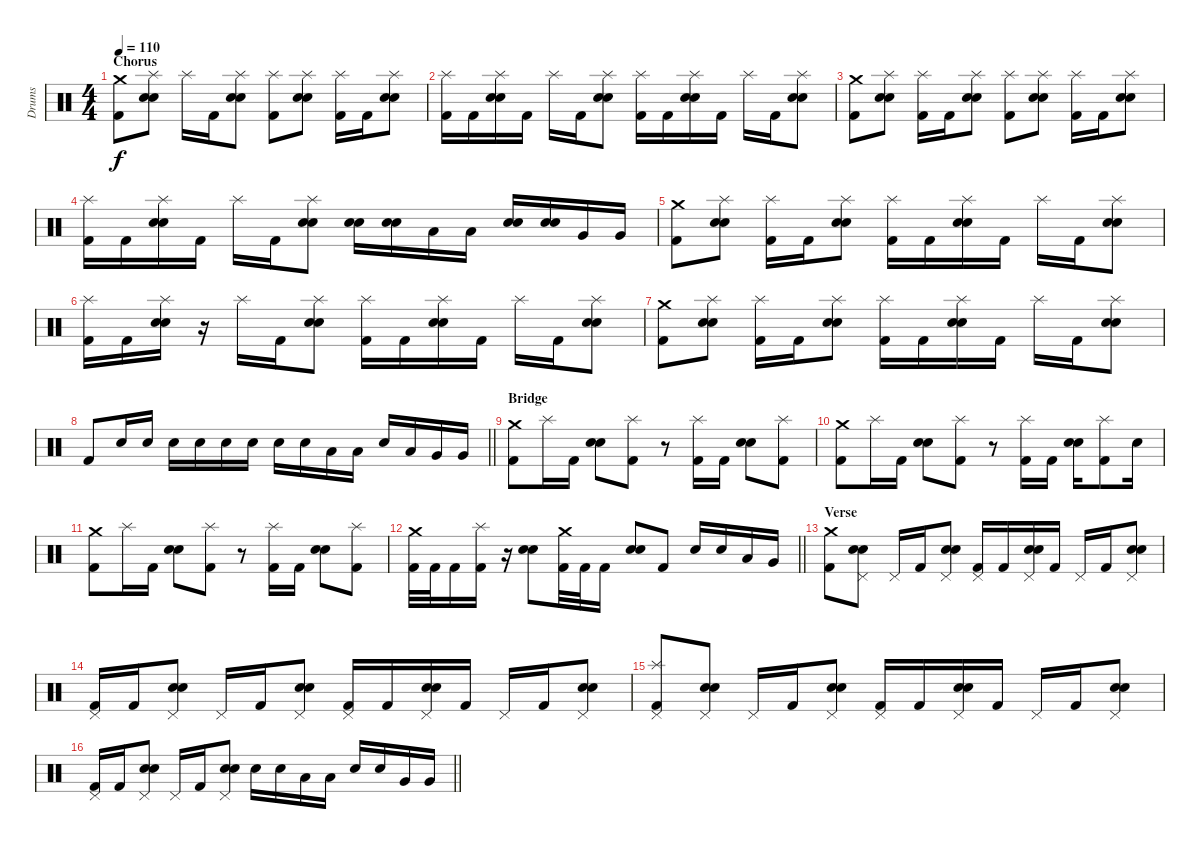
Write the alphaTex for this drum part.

\track ("Drums" "Drums") {instrument percussion}
\staff {score}
\articulation defaults
\ts (4 4)
\section ("" "Chorus")
\tempo 110
\clef neutral
\ks c
("Crash medium (hit)" "Kick (hit) 2").8{dy f} ("Splash (hit)" "Electric Snare (hit)" "Snare (hit) 2").8 "Splash (hit)".16 "Kick (hit) 2".16 ("Splash (hit)" "Electric Snare (hit)" "Snare (hit) 2").8 ("Splash (hit)" "Kick (hit) 2").8 ("Splash (hit)" "Electric Snare (hit)" "Snare (hit) 2").8 ("Splash (hit)" "Kick (hit) 2").16 "Kick (hit) 2".16 ("Splash (hit)" "Electric Snare (hit)" "Snare (hit) 2").8 |
("Splash (hit)" "Kick (hit) 2").16 "Kick (hit) 2".16 ("Splash (hit)" "Electric Snare (hit)" "Snare (hit) 2").16 "Kick (hit) 2".16 "Splash (hit)".16 "Kick (hit) 2".16 ("Splash (hit)" "Electric Snare (hit)" "Snare (hit) 2").8 ("Splash (hit)" "Kick (hit) 2").16 "Kick (hit) 2".16 ("Splash (hit)" "Electric Snare (hit)" "Snare (hit) 2").16 "Kick (hit) 2".16 "Splash (hit)".16 "Kick (hit) 2".16 ("Splash (hit)" "Electric Snare (hit)" "Snare (hit) 2").8 |
("Crash medium (hit)" "Kick (hit) 2").8 ("Splash (hit)" "Electric Snare (hit)" "Snare (hit) 2").8 ("Splash (hit)" "Kick (hit) 2").16 "Kick (hit) 2".16 ("Splash (hit)" "Electric Snare (hit)" "Snare (hit) 2").8 ("Splash (hit)" "Kick (hit) 2").8 ("Splash (hit)" "Electric Snare (hit)" "Snare (hit) 2").8 ("Splash (hit)" "Kick (hit) 2").16 "Kick (hit) 2".16 ("Splash (hit)" "Electric Snare (hit)" "Snare (hit) 2").8 |
("Splash (hit)" "Kick (hit) 2").16 "Kick (hit) 2".16 ("Splash (hit)" "Electric Snare (hit)" "Snare (hit) 2").16 "Kick (hit) 2".16 "Splash (hit)".16 "Kick (hit) 2".16 ("Splash (hit)" "Electric Snare (hit)" "Snare (hit) 2").8 ("Electric Snare (hit)" "Snare (hit) 2").16 ("Electric Snare (hit)" "Snare (hit) 2").16 "Low Tom (hit)".16 "Low Tom (hit)".16 ("Electric Snare (hit)" "Snare (hit) 2").16 ("Electric Snare (hit)" "Snare (hit) 2").16 "Very Low Tom (hit)".16 "Very Low Tom (hit)".16 |
("Crash medium (hit)" "Kick (hit) 2").8 ("Splash (hit)" "Electric Snare (hit)" "Snare (hit) 2").8 ("Splash (hit)" "Kick (hit) 2").16 "Kick (hit) 2".16 ("Splash (hit)" "Electric Snare (hit)" "Snare (hit) 2").8 ("Splash (hit)" "Kick (hit) 2").16 "Kick (hit) 2".16 ("Splash (hit)" "Electric Snare (hit)" "Snare (hit) 2").16 "Kick (hit) 2".16 "Splash (hit)".16 "Kick (hit) 2".16 ("Splash (hit)" "Electric Snare (hit)" "Snare (hit) 2").8 |
("Splash (hit)" "Kick (hit) 2").16 "Kick (hit) 2".16 ("Splash (hit)" "Electric Snare (hit)" "Snare (hit) 2").16 r.16 "Splash (hit)".16 "Kick (hit) 2".16 ("Splash (hit)" "Electric Snare (hit)" "Snare (hit) 2").8 ("Splash (hit)" "Kick (hit) 2").16 "Kick (hit) 2".16 ("Splash (hit)" "Electric Snare (hit)" "Snare (hit) 2").16 "Kick (hit) 2".16 "Splash (hit)".16 "Kick (hit) 2".16 ("Splash (hit)" "Electric Snare (hit)" "Snare (hit) 2").8 |
("Crash medium (hit)" "Kick (hit) 2").8 ("Splash (hit)" "Electric Snare (hit)" "Snare (hit) 2").8 ("Splash (hit)" "Kick (hit) 2").16 "Kick (hit) 2".16 ("Splash (hit)" "Electric Snare (hit)" "Snare (hit) 2").8 ("Splash (hit)" "Kick (hit) 2").16 "Kick (hit) 2".16 ("Splash (hit)" "Electric Snare (hit)" "Snare (hit) 2").16 "Kick (hit) 2".16 "Splash (hit)".16 "Kick (hit) 2".16 ("Splash (hit)" "Electric Snare (hit)" "Snare (hit) 2").8 |
\barLineRight lightlight "Kick (hit) 2".8 "Electric Snare (hit)".16 "Electric Snare (hit)".16 "Electric Snare (hit)".16 "Electric Snare (hit)".16 "Electric Snare (hit)".16 "Electric Snare (hit)".16 "Electric Snare (hit)".16 "Electric Snare (hit)".16 "Low Tom (hit)".16 "Low Tom (hit)".16 "Electric Snare (hit)".16 "Low Tom (hit)".16 "Very Low Tom (hit)".16 "Very Low Tom (hit)".16
|
\section ("" "Bridge")
("Crash medium (hit)" "Kick (hit) 2").8 "Splash (hit)".16 "Kick (hit) 2".16 ("Electric Snare (hit)" "Snare (hit) 2").8 ("Splash (hit)" "Kick (hit) 2").8 r.8 ("Splash (hit)" "Kick (hit) 2").16 "Kick (hit) 2".16 ("Electric Snare (hit)" "Snare (hit) 2").8 ("Splash (hit)" "Kick (hit) 2").8 |
("Crash medium (hit)" "Kick (hit) 2").8 "Splash (hit)".16 "Kick (hit) 2".16 ("Electric Snare (hit)" "Snare (hit) 2").8 ("Splash (hit)" "Kick (hit) 2").8 r.8 ("Splash (hit)" "Kick (hit) 2").16 "Kick (hit) 2".16 ("Electric Snare (hit)" "Snare (hit) 2").16 ("Splash (hit)" "Kick (hit) 2").8 "Electric Snare (hit)".16 |
("Crash medium (hit)" "Kick (hit) 2").8 "Splash (hit)".16 "Kick (hit) 2".16 ("Electric Snare (hit)" "Snare (hit) 2").8 ("Splash (hit)" "Kick (hit) 2").8 r.8 ("Splash (hit)" "Kick (hit) 2").16 "Kick (hit) 2".16 ("Electric Snare (hit)" "Snare (hit) 2").8 ("Splash (hit)" "Kick (hit) 2").8 |
\barLineRight lightlight
("Crash medium (hit)" "Kick (hit) 2").32 "Kick (hit) 2".32 "Kick (hit) 2".16 ("Splash (hit)" "Kick (hit) 2").16 r.16 ("Electric Snare (hit)" "Snare (hit) 2").8 ("Crash medium (hit)" "Kick (hit) 2").32 "Kick (hit) 2".32 "Kick (hit) 2".16 ("Electric Snare (hit)" "Snare (hit) 2").8 "Kick (hit) 2".8 "Electric Snare (hit)".16 "Electric Snare (hit)".16 "Low Tom (hit)".16 "Very Low Tom (hit)".16 |
\section ("" "Verse")
("Crash medium (hit)" "Kick (hit) 2").8 ("Pedal Hi-Hat (hit)" "Electric Snare (hit)" "Snare (hit) 2").8 "Pedal Hi-Hat (hit)".16 "Kick (hit) 2".16 ("Pedal Hi-Hat (hit)" "Electric Snare (hit)" "Snare (hit) 2").8 ("Pedal Hi-Hat (hit)" "Kick (hit) 2").16 "Kick (hit) 2".16 ("Pedal Hi-Hat (hit)" "Electric Snare (hit)" "Snare (hit) 2").16 "Kick (hit) 2".16 "Pedal Hi-Hat (hit)".16 "Kick (hit) 2".16 ("Pedal Hi-Hat (hit)" "Electric Snare (hit)" "Snare (hit) 2").8 |
("Pedal Hi-Hat (hit)" "Kick (hit) 2").16 "Kick (hit) 2".16 ("Pedal Hi-Hat (hit)" "Electric Snare (hit)" "Snare (hit) 2").8 "Pedal Hi-Hat (hit)".16 "Kick (hit) 2".16 ("Pedal Hi-Hat (hit)" "Electric Snare (hit)" "Snare (hit) 2").8 ("Pedal Hi-Hat (hit)" "Kick (hit) 2").16 "Kick (hit) 2".16 ("Pedal Hi-Hat (hit)" "Electric Snare (hit)" "Snare (hit) 2").16 "Kick (hit) 2".16 "Pedal Hi-Hat (hit)".16 "Kick (hit) 2".16 ("Pedal Hi-Hat (hit)" "Electric Snare (hit)" "Snare (hit) 2").8 |
("Splash (hit)" "Pedal Hi-Hat (hit)" "Kick (hit) 2").8 ("Pedal Hi-Hat (hit)" "Electric Snare (hit)" "Snare (hit) 2").8 "Pedal Hi-Hat (hit)".16 "Kick (hit) 2".16 ("Pedal Hi-Hat (hit)" "Electric Snare (hit)" "Snare (hit) 2").8 ("Pedal Hi-Hat (hit)" "Kick (hit) 2").16 "Kick (hit) 2".16 ("Pedal Hi-Hat (hit)" "Electric Snare (hit)" "Snare (hit) 2").16 "Kick (hit) 2".16 "Pedal Hi-Hat (hit)".16 "Kick (hit) 2".16 ("Pedal Hi-Hat (hit)" "Electric Snare (hit)" "Snare (hit) 2").8 |
\barLineRight lightlight
("Pedal Hi-Hat (hit)" "Kick (hit) 2").16 "Kick (hit) 2".16 ("Pedal Hi-Hat (hit)" "Electric Snare (hit)" "Snare (hit) 2").8 "Pedal Hi-Hat (hit)".16 "Kick (hit) 2".16 ("Pedal Hi-Hat (hit)" "Electric Snare (hit)" "Snare (hit) 2").8 "Electric Snare (hit)".16 "Electric Snare (hit)".16 "Low Tom (hit)".16 "Low Tom (hit)".16 "Electric Snare (hit)".16 "Electric Snare (hit)".16 "Very Low Tom (hit)".16 "Very Low Tom (hit)".16
